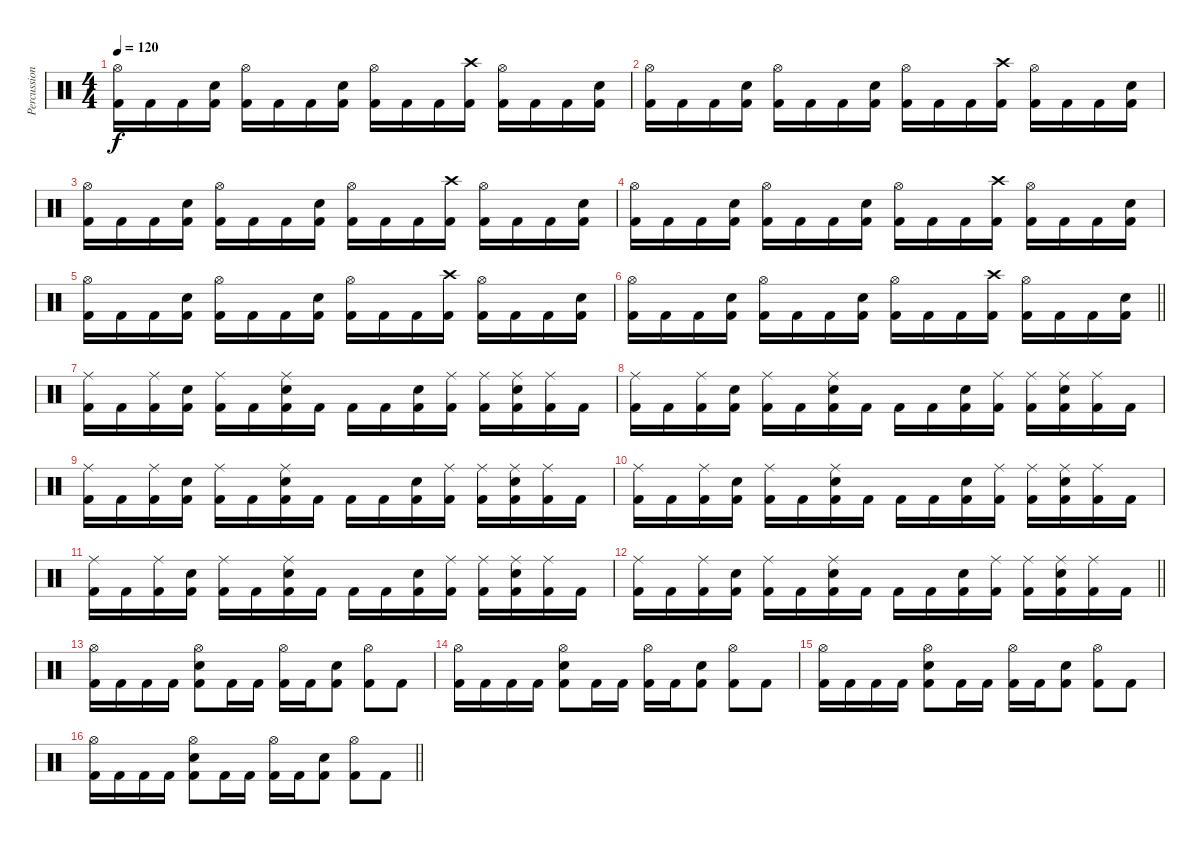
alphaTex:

\track ("Percussion" "Percussion") {instrument percussion}
\staff {score}
\articulation defaults
\ts (4 4)
\tempo 120
\clef neutral
\ks c
("Hi-Hat (open)" "Kick (hit) 2").16{dy f} "Kick (hit) 2".16 "Kick (hit) 2".16 ("Electric Snare (hit)" "Kick (hit) 2").16 ("Hi-Hat (open)" "Kick (hit) 2").16 "Kick (hit) 2".16 "Kick (hit) 2".16 ("Electric Snare (hit)" "Kick (hit) 2").16 ("Hi-Hat (open)" "Kick (hit) 2").16 "Kick (hit) 2".16 "Kick (hit) 2".16 ("Crash high (hit)" "Kick (hit) 2").16 ("Hi-Hat (open)" "Kick (hit) 2").16 "Kick (hit) 2".16 "Kick (hit) 2".16 ("Electric Snare (hit)" "Kick (hit) 2").16 |
("Hi-Hat (open)" "Kick (hit) 2").16 "Kick (hit) 2".16 "Kick (hit) 2".16 ("Electric Snare (hit)" "Kick (hit) 2").16 ("Hi-Hat (open)" "Kick (hit) 2").16 "Kick (hit) 2".16 "Kick (hit) 2".16 ("Electric Snare (hit)" "Kick (hit) 2").16 ("Hi-Hat (open)" "Kick (hit) 2").16 "Kick (hit) 2".16 "Kick (hit) 2".16 ("Crash high (hit)" "Kick (hit) 2").16 ("Hi-Hat (open)" "Kick (hit) 2").16 "Kick (hit) 2".16 "Kick (hit) 2".16 ("Electric Snare (hit)" "Kick (hit) 2").16 |
("Hi-Hat (open)" "Kick (hit) 2").16 "Kick (hit) 2".16 "Kick (hit) 2".16 ("Electric Snare (hit)" "Kick (hit) 2").16 ("Hi-Hat (open)" "Kick (hit) 2").16 "Kick (hit) 2".16 "Kick (hit) 2".16 ("Electric Snare (hit)" "Kick (hit) 2").16 ("Hi-Hat (open)" "Kick (hit) 2").16 "Kick (hit) 2".16 "Kick (hit) 2".16 ("Crash high (hit)" "Kick (hit) 2").16 ("Hi-Hat (open)" "Kick (hit) 2").16 "Kick (hit) 2".16 "Kick (hit) 2".16 ("Electric Snare (hit)" "Kick (hit) 2").16 |
("Hi-Hat (open)" "Kick (hit) 2").16 "Kick (hit) 2".16 "Kick (hit) 2".16 ("Electric Snare (hit)" "Kick (hit) 2").16 ("Hi-Hat (open)" "Kick (hit) 2").16 "Kick (hit) 2".16 "Kick (hit) 2".16 ("Electric Snare (hit)" "Kick (hit) 2").16 ("Hi-Hat (open)" "Kick (hit) 2").16 "Kick (hit) 2".16 "Kick (hit) 2".16 ("Crash high (hit)" "Kick (hit) 2").16 ("Hi-Hat (open)" "Kick (hit) 2").16 "Kick (hit) 2".16 "Kick (hit) 2".16 ("Electric Snare (hit)" "Kick (hit) 2").16 |
("Hi-Hat (open)" "Kick (hit) 2").16 "Kick (hit) 2".16 "Kick (hit) 2".16 ("Electric Snare (hit)" "Kick (hit) 2").16 ("Hi-Hat (open)" "Kick (hit) 2").16 "Kick (hit) 2".16 "Kick (hit) 2".16 ("Electric Snare (hit)" "Kick (hit) 2").16 ("Hi-Hat (open)" "Kick (hit) 2").16 "Kick (hit) 2".16 "Kick (hit) 2".16 ("Crash high (hit)" "Kick (hit) 2").16 ("Hi-Hat (open)" "Kick (hit) 2").16 "Kick (hit) 2".16 "Kick (hit) 2".16 ("Electric Snare (hit)" "Kick (hit) 2").16 |
\barLineRight lightlight
("Hi-Hat (open)" "Kick (hit) 2").16 "Kick (hit) 2".16 "Kick (hit) 2".16 ("Electric Snare (hit)" "Kick (hit) 2").16 ("Hi-Hat (open)" "Kick (hit) 2").16 "Kick (hit) 2".16 "Kick (hit) 2".16 ("Electric Snare (hit)" "Kick (hit) 2").16 ("Hi-Hat (open)" "Kick (hit) 2").16 "Kick (hit) 2".16 "Kick (hit) 2".16 ("Crash high (hit)" "Kick (hit) 2").16 ("Hi-Hat (open)" "Kick (hit) 2").16 "Kick (hit) 2".16 "Kick (hit) 2".16 ("Electric Snare (hit)" "Kick (hit) 2").16 |
("Ride (middle)" "Kick (hit) 2").16 "Kick (hit) 2".16 ("Ride (middle)" "Kick (hit) 2").16 ("Electric Snare (hit)" "Kick (hit) 2").16 ("Ride (middle)" "Kick (hit) 2").16 "Kick (hit) 2".16 ("Ride (middle)" "Electric Snare (hit)" "Kick (hit) 2").16 "Kick (hit) 2".16 "Kick (hit) 2".16 "Kick (hit) 2".16 ("Electric Snare (hit)" "Kick (hit) 2").16 ("Ride (middle)" "Kick (hit) 2").16 ("Ride (middle)" "Kick (hit) 2").16 ("Ride (middle)" "Electric Snare (hit)" "Kick (hit) 2").16 ("Ride (middle)" "Kick (hit) 2").16 "Kick (hit) 2".16 |
("Ride (middle)" "Kick (hit) 2").16 "Kick (hit) 2".16 ("Ride (middle)" "Kick (hit) 2").16 ("Electric Snare (hit)" "Kick (hit) 2").16 ("Ride (middle)" "Kick (hit) 2").16 "Kick (hit) 2".16 ("Ride (middle)" "Electric Snare (hit)" "Kick (hit) 2").16 "Kick (hit) 2".16 "Kick (hit) 2".16 "Kick (hit) 2".16 ("Electric Snare (hit)" "Kick (hit) 2").16 ("Ride (middle)" "Kick (hit) 2").16 ("Ride (middle)" "Kick (hit) 2").16 ("Ride (middle)" "Electric Snare (hit)" "Kick (hit) 2").16 ("Ride (middle)" "Kick (hit) 2").16 "Kick (hit) 2".16 |
("Ride (middle)" "Kick (hit) 2").16 "Kick (hit) 2".16 ("Ride (middle)" "Kick (hit) 2").16 ("Electric Snare (hit)" "Kick (hit) 2").16 ("Ride (middle)" "Kick (hit) 2").16 "Kick (hit) 2".16 ("Ride (middle)" "Electric Snare (hit)" "Kick (hit) 2").16 "Kick (hit) 2".16 "Kick (hit) 2".16 "Kick (hit) 2".16 ("Electric Snare (hit)" "Kick (hit) 2").16 ("Ride (middle)" "Kick (hit) 2").16 ("Ride (middle)" "Kick (hit) 2").16 ("Ride (middle)" "Electric Snare (hit)" "Kick (hit) 2").16 ("Ride (middle)" "Kick (hit) 2").16 "Kick (hit) 2".16 |
("Ride (middle)" "Kick (hit) 2").16 "Kick (hit) 2".16 ("Ride (middle)" "Kick (hit) 2").16 ("Electric Snare (hit)" "Kick (hit) 2").16 ("Ride (middle)" "Kick (hit) 2").16 "Kick (hit) 2".16 ("Ride (middle)" "Electric Snare (hit)" "Kick (hit) 2").16 "Kick (hit) 2".16 "Kick (hit) 2".16 "Kick (hit) 2".16 ("Electric Snare (hit)" "Kick (hit) 2").16 ("Ride (middle)" "Kick (hit) 2").16 ("Ride (middle)" "Kick (hit) 2").16 ("Ride (middle)" "Electric Snare (hit)" "Kick (hit) 2").16 ("Ride (middle)" "Kick (hit) 2").16 "Kick (hit) 2".16 |
("Ride (middle)" "Kick (hit) 2").16 "Kick (hit) 2".16 ("Ride (middle)" "Kick (hit) 2").16 ("Electric Snare (hit)" "Kick (hit) 2").16 ("Ride (middle)" "Kick (hit) 2").16 "Kick (hit) 2".16 ("Ride (middle)" "Electric Snare (hit)" "Kick (hit) 2").16 "Kick (hit) 2".16 "Kick (hit) 2".16 "Kick (hit) 2".16 ("Electric Snare (hit)" "Kick (hit) 2").16 ("Ride (middle)" "Kick (hit) 2").16 ("Ride (middle)" "Kick (hit) 2").16 ("Ride (middle)" "Electric Snare (hit)" "Kick (hit) 2").16 ("Ride (middle)" "Kick (hit) 2").16 "Kick (hit) 2".16 |
\barLineRight lightlight
("Ride (middle)" "Kick (hit) 2").16 "Kick (hit) 2".16 ("Ride (middle)" "Kick (hit) 2").16 ("Electric Snare (hit)" "Kick (hit) 2").16 ("Ride (middle)" "Kick (hit) 2").16 "Kick (hit) 2".16 ("Ride (middle)" "Electric Snare (hit)" "Kick (hit) 2").16 "Kick (hit) 2".16 "Kick (hit) 2".16 "Kick (hit) 2".16 ("Electric Snare (hit)" "Kick (hit) 2").16 ("Ride (middle)" "Kick (hit) 2").16 ("Ride (middle)" "Kick (hit) 2").16 ("Ride (middle)" "Electric Snare (hit)" "Kick (hit) 2").16 ("Ride (middle)" "Kick (hit) 2").16 "Kick (hit) 2".16 |
("Hi-Hat (open)" "Kick (hit) 2").16 "Kick (hit) 2".16 "Kick (hit) 2".16 "Kick (hit) 2".16 ("Hi-Hat (open)" "Electric Snare (hit)" "Kick (hit) 2").8 "Kick (hit) 2".16 "Kick (hit) 2".16 ("Hi-Hat (open)" "Kick (hit) 2").16 "Kick (hit) 2".16 ("Electric Snare (hit)" "Kick (hit) 2").8 ("Hi-Hat (open)" "Kick (hit) 2").8 "Kick (hit) 2".8 |
("Hi-Hat (open)" "Kick (hit) 2").16 "Kick (hit) 2".16 "Kick (hit) 2".16 "Kick (hit) 2".16 ("Hi-Hat (open)" "Electric Snare (hit)" "Kick (hit) 2").8 "Kick (hit) 2".16 "Kick (hit) 2".16 ("Hi-Hat (open)" "Kick (hit) 2").16 "Kick (hit) 2".16 ("Electric Snare (hit)" "Kick (hit) 2").8 ("Hi-Hat (open)" "Kick (hit) 2").8 "Kick (hit) 2".8 |
("Hi-Hat (open)" "Kick (hit) 2").16 "Kick (hit) 2".16 "Kick (hit) 2".16 "Kick (hit) 2".16 ("Hi-Hat (open)" "Electric Snare (hit)" "Kick (hit) 2").8 "Kick (hit) 2".16 "Kick (hit) 2".16 ("Hi-Hat (open)" "Kick (hit) 2").16 "Kick (hit) 2".16 ("Electric Snare (hit)" "Kick (hit) 2").8 ("Hi-Hat (open)" "Kick (hit) 2").8 "Kick (hit) 2".8 |
\barLineRight lightlight
("Hi-Hat (open)" "Kick (hit) 2").16 "Kick (hit) 2".16 "Kick (hit) 2".16 "Kick (hit) 2".16 ("Hi-Hat (open)" "Electric Snare (hit)" "Kick (hit) 2").8 "Kick (hit) 2".16 "Kick (hit) 2".16 ("Hi-Hat (open)" "Kick (hit) 2").16 "Kick (hit) 2".16 ("Electric Snare (hit)" "Kick (hit) 2").8 ("Hi-Hat (open)" "Kick (hit) 2").8 "Kick (hit) 2".8
